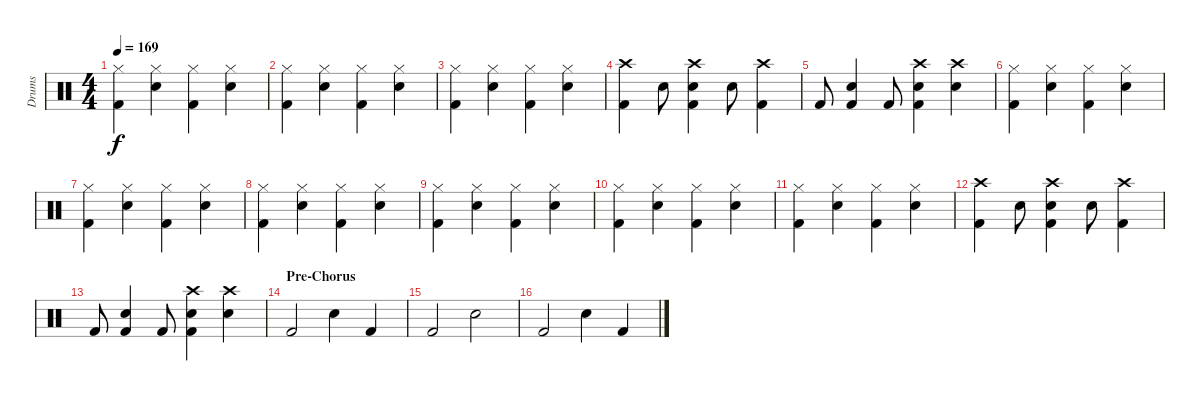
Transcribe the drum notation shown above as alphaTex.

\track ("Drums" "Drums") {instrument percussion}
\staff {score}
\articulation defaults
\ts (4 4)
\tempo 169
\clef neutral
\ks c
("Hi-Hat (closed)" "Kick (hit) 2").4{dy f} ("Hi-Hat (closed)" "Snare (hit) 2").4 ("Hi-Hat (closed)" "Kick (hit) 2").4 ("Hi-Hat (closed)" "Snare (hit) 2").4 |
("Hi-Hat (closed)" "Kick (hit) 2").4 ("Hi-Hat (closed)" "Snare (hit) 2").4 ("Hi-Hat (closed)" "Kick (hit) 2").4 ("Hi-Hat (closed)" "Snare (hit) 2").4 |
("Hi-Hat (closed)" "Kick (hit) 2").4 ("Hi-Hat (closed)" "Snare (hit) 2").4 ("Hi-Hat (closed)" "Kick (hit) 2").4 ("Hi-Hat (closed)" "Snare (hit) 2").4 |
("Crash high (hit)" "Kick (hit) 2").4 "Snare (hit) 2".8 ("Crash high (hit)" "Snare (hit) 2" "Kick (hit) 2").4 "Snare (hit) 2".8 ("Crash high (hit)" "Kick (hit) 2").4 |
"Kick (hit) 2".8 ("Snare (hit) 2" "Kick (hit) 2").4 "Kick (hit) 2".8 ("Kick (hit) 2" "Crash high (hit)" "Snare (hit) 2").4 ("Crash high (hit)" "Snare (hit) 2").4 |
("Hi-Hat (closed)" "Kick (hit) 2").4 ("Hi-Hat (closed)" "Snare (hit) 2").4 ("Hi-Hat (closed)" "Kick (hit) 2").4 ("Hi-Hat (closed)" "Snare (hit) 2").4 |
("Hi-Hat (closed)" "Kick (hit) 2").4 ("Hi-Hat (closed)" "Snare (hit) 2").4 ("Hi-Hat (closed)" "Kick (hit) 2").4 ("Hi-Hat (closed)" "Snare (hit) 2").4 |
("Hi-Hat (closed)" "Kick (hit) 2").4 ("Hi-Hat (closed)" "Snare (hit) 2").4 ("Hi-Hat (closed)" "Kick (hit) 2").4 ("Hi-Hat (closed)" "Snare (hit) 2").4 |
("Hi-Hat (closed)" "Kick (hit) 2").4 ("Hi-Hat (closed)" "Snare (hit) 2").4 ("Hi-Hat (closed)" "Kick (hit) 2").4 ("Hi-Hat (closed)" "Snare (hit) 2").4 |
("Hi-Hat (closed)" "Kick (hit) 2").4 ("Hi-Hat (closed)" "Snare (hit) 2").4 ("Hi-Hat (closed)" "Kick (hit) 2").4 ("Hi-Hat (closed)" "Snare (hit) 2").4 |
("Hi-Hat (closed)" "Kick (hit) 2").4 ("Hi-Hat (closed)" "Snare (hit) 2").4 ("Hi-Hat (closed)" "Kick (hit) 2").4 ("Hi-Hat (closed)" "Snare (hit) 2").4 |
("Crash high (hit)" "Kick (hit) 2").4 "Snare (hit) 2".8 ("Crash high (hit)" "Snare (hit) 2" "Kick (hit) 2").4 "Snare (hit) 2".8 ("Crash high (hit)" "Kick (hit) 2").4 |
"Kick (hit) 2".8 ("Snare (hit) 2" "Kick (hit) 2").4 "Kick (hit) 2".8 ("Kick (hit) 2" "Crash high (hit)" "Snare (hit) 2").4 ("Crash high (hit)" "Snare (hit) 2").4 |
\section ("" "Pre-Chorus")
"Kick (hit) 2".2 "Snare (hit) 2".4 "Kick (hit) 2".4 |
"Kick (hit) 2".2 "Snare (hit) 2".2 |
"Kick (hit) 2".2 "Snare (hit) 2".4 "Kick (hit) 2".4
